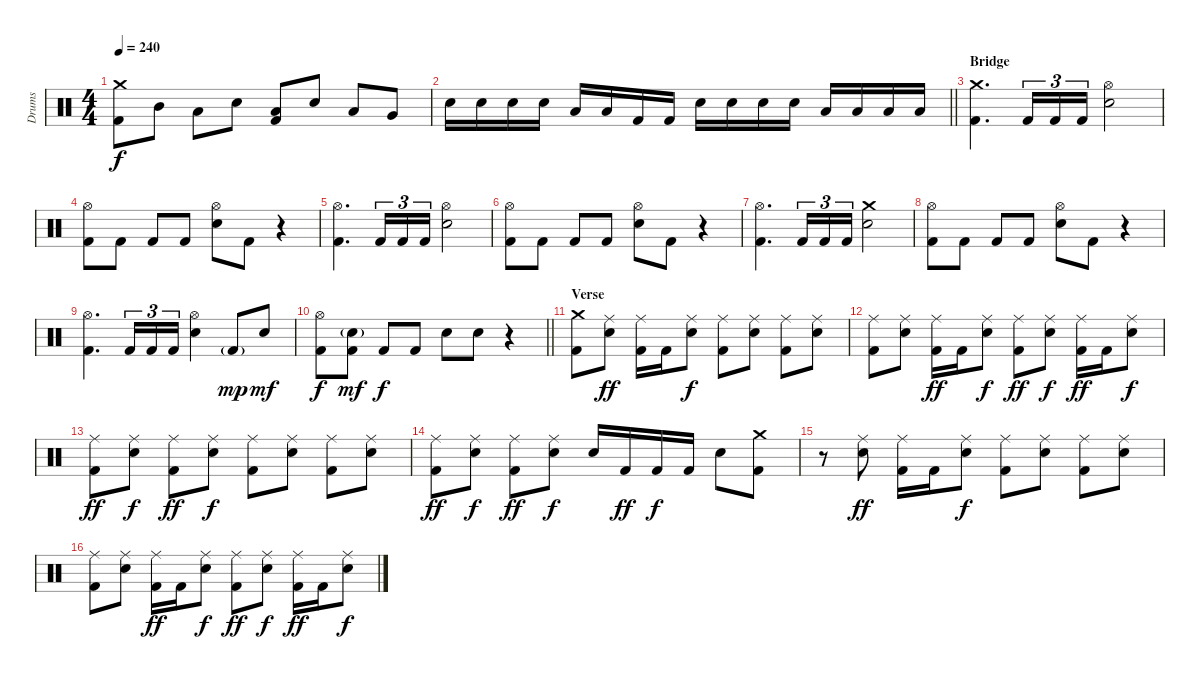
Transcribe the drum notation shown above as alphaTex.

\track ("Drums" "Drums") {instrument percussion}
\staff {score}
\articulation defaults
\ts (4 4)
\tempo 240
\clef neutral
\ks c
("Crash medium (hit)" "Kick (hit) 2").8{dy f} "Mid Tom (hit)".8 "Low Tom (hit)".8 "Electric Snare (hit)".8 ("Low Tom (hit)" "Kick (hit) 2").8 "Electric Snare (hit)".8 "Low Tom (hit)".8 "Very Low Tom (hit)".8 |
\barLineRight lightlight "Electric Snare (hit)".16 "Electric Snare (hit)".16 "Electric Snare (hit)".16 "Electric Snare (hit)".16 "Low Tom (hit)".16 "Low Tom (hit)".16 "Kick (hit) 2".16 "Kick (hit) 2".16 "Electric Snare (hit)".16 "Electric Snare (hit)".16 "Electric Snare (hit)".16 "Electric Snare (hit)".16 "Low Tom (hit)".16 "Low Tom (hit)".16 "Low Tom (hit)".16 "Low Tom (hit)".16
|
\section ("" "Bridge")
("Crash medium (hit)" "Kick (hit) 2").4{d} "Kick (hit) 2".16{tu (3 2)} "Kick (hit) 2".16{tu (3 2)} "Kick (hit) 2".16{tu (3 2)} ("Hi-Hat (open)" "Electric Snare (hit)").2 |
("Hi-Hat (open)" "Kick (hit) 2").8 "Kick (hit) 2".8 "Kick (hit) 2".8 "Kick (hit) 2".8 ("Hi-Hat (open)" "Electric Snare (hit)").8 "Kick (hit) 2".8 r.4 |
("Hi-Hat (open)" "Kick (hit) 2").4{d} "Kick (hit) 2".16{tu (3 2)} "Kick (hit) 2".16{tu (3 2)} "Kick (hit) 2".16{tu (3 2)} ("Hi-Hat (open)" "Electric Snare (hit)").2 |
("Hi-Hat (open)" "Kick (hit) 2").8 "Kick (hit) 2".8 "Kick (hit) 2".8 "Kick (hit) 2".8 ("Hi-Hat (open)" "Electric Snare (hit)").8 "Kick (hit) 2".8 r.4 |
("Hi-Hat (open)" "Kick (hit) 2").4{d} "Kick (hit) 2".16{tu (3 2)} "Kick (hit) 2".16{tu (3 2)} "Kick (hit) 2".16{tu (3 2)} ("Crash medium (hit)" "Electric Snare (hit)").2 |
("Hi-Hat (open)" "Kick (hit) 2").8 "Kick (hit) 2".8 "Kick (hit) 2".8 "Kick (hit) 2".8 ("Hi-Hat (open)" "Electric Snare (hit)").8 "Kick (hit) 2".8 r.4 |
("Hi-Hat (open)" "Kick (hit) 2").4{d} "Kick (hit) 2".16{tu (3 2)} "Kick (hit) 2".16{tu (3 2)} "Kick (hit) 2".16{tu (3 2)} ("Hi-Hat (open)" "Electric Snare (hit)").4 "Kick (hit) 2"{g}.8{dy mp} "Electric Snare (hit)".8{dy mf} |
\barLineRight lightlight
("Hi-Hat (open)" "Kick (hit) 2").8{dy f} ("Electric Snare (hit)"{g} "Kick (hit) 2").8{dy mf} "Kick (hit) 2".8{dy f} "Kick (hit) 2".8 "Electric Snare (hit)".8 "Electric Snare (hit)".8 r.4 |
\section ("" "Verse")
("Crash medium (hit)" "Kick (hit) 2").8 ("Ride (middle)" "Electric Snare (hit)").8{dy ff} ("Ride (middle)" "Kick (hit) 2").16 "Kick (hit) 2".16 ("Ride (middle)" "Electric Snare (hit)").8{dy f} ("Ride (middle)" "Kick (hit) 2").8 ("Ride (middle)" "Electric Snare (hit)").8 ("Ride (middle)" "Kick (hit) 2").8 ("Ride (middle)" "Electric Snare (hit)").8 |
("Ride (middle)" "Kick (hit) 2").8 ("Ride (middle)" "Electric Snare (hit)").8 ("Ride (middle)" "Kick (hit) 2").16{dy ff} "Kick (hit) 2".16 ("Ride (middle)" "Electric Snare (hit)").8{dy f} ("Ride (middle)" "Kick (hit) 2").8{dy ff} ("Ride (middle)" "Electric Snare (hit)").8{dy f} ("Ride (middle)" "Kick (hit) 2").16{dy ff} "Kick (hit) 2".16 ("Ride (middle)" "Electric Snare (hit)").8{dy f} |
("Ride (middle)" "Kick (hit) 2").8{dy ff} ("Ride (middle)" "Electric Snare (hit)").8{dy f} ("Ride (middle)" "Kick (hit) 2").8{dy ff} ("Ride (middle)" "Electric Snare (hit)").8{dy f} ("Ride (middle)" "Kick (hit) 2").8 ("Ride (middle)" "Electric Snare (hit)").8 ("Ride (middle)" "Kick (hit) 2").8 ("Ride (middle)" "Electric Snare (hit)").8 |
("Ride (middle)" "Kick (hit) 2").8{dy ff} ("Ride (middle)" "Electric Snare (hit)").8{dy f} ("Ride (middle)" "Kick (hit) 2").8{dy ff} ("Ride (middle)" "Electric Snare (hit)").8{dy f} "Electric Snare (hit)".16 "Kick (hit) 2".16{dy ff} "Kick (hit) 2".16{dy f} "Kick (hit) 2".16 "Electric Snare (hit)".8 ("Crash medium (hit)" "Kick (hit) 2").8 |
r.8 ("Ride (middle)" "Electric Snare (hit)").8{dy ff} ("Ride (middle)" "Kick (hit) 2").16 "Kick (hit) 2".16 ("Ride (middle)" "Electric Snare (hit)").8{dy f} ("Ride (middle)" "Kick (hit) 2").8 ("Ride (middle)" "Electric Snare (hit)").8 ("Ride (middle)" "Kick (hit) 2").8 ("Ride (middle)" "Electric Snare (hit)").8 |
("Ride (middle)" "Kick (hit) 2").8 ("Ride (middle)" "Electric Snare (hit)").8 ("Ride (middle)" "Kick (hit) 2").16{dy ff} "Kick (hit) 2".16 ("Ride (middle)" "Electric Snare (hit)").8{dy f} ("Ride (middle)" "Kick (hit) 2").8{dy ff} ("Ride (middle)" "Electric Snare (hit)").8{dy f} ("Ride (middle)" "Kick (hit) 2").16{dy ff} "Kick (hit) 2".16 ("Ride (middle)" "Electric Snare (hit)").8{dy f}
